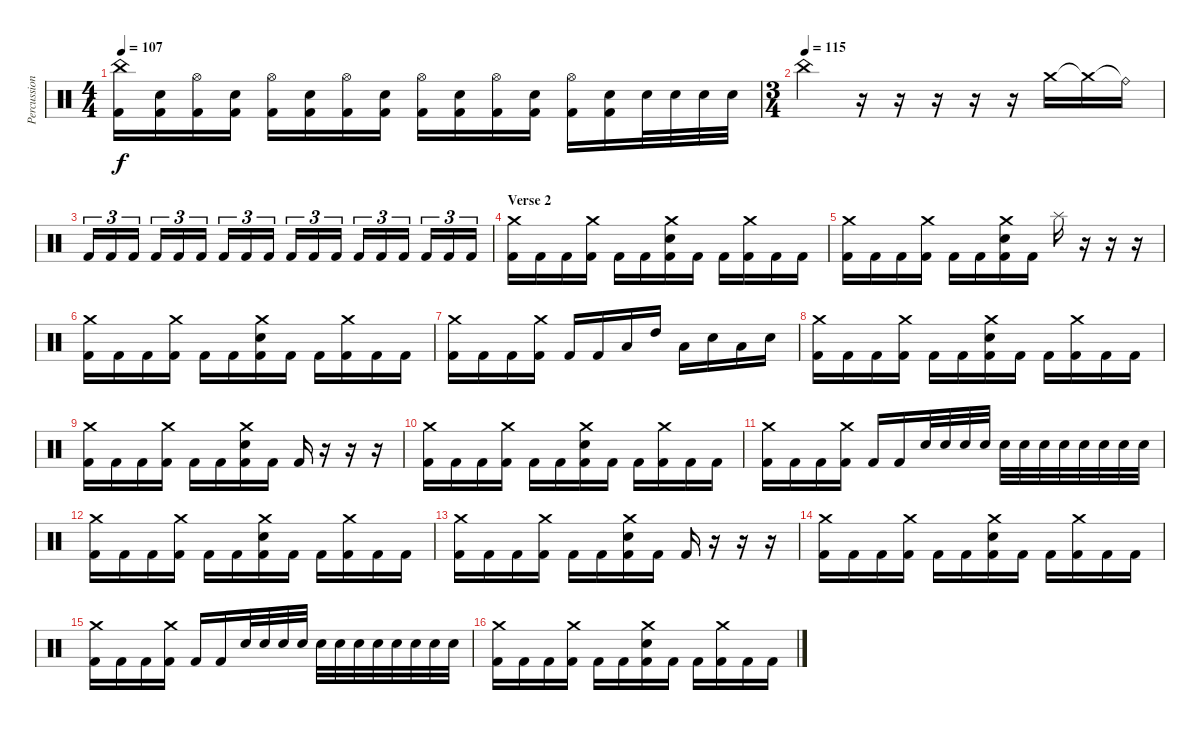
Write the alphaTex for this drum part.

\track ("Percussion" "Percussion") {instrument percussion}
\staff {score}
\articulation defaults
\ts (4 4)
\tempo 107
\clef neutral
\ks c
("Kick (hit) 2" "China (hit)").16{dy f} ("Kick (hit) 2" "Electric Snare (hit)").16 ("Kick (hit) 2" "Hi-Hat (open)").16 ("Kick (hit) 2" "Electric Snare (hit)").16 ("Kick (hit) 2" "Hi-Hat (open)").16 ("Kick (hit) 2" "Electric Snare (hit)").16 ("Kick (hit) 2" "Hi-Hat (open)").16 ("Kick (hit) 2" "Electric Snare (hit)").16 ("Kick (hit) 2" "Hi-Hat (open)").16 ("Kick (hit) 2" "Electric Snare (hit)").16 ("Kick (hit) 2" "Hi-Hat (open)").16 ("Kick (hit) 2" "Electric Snare (hit)").16 ("Kick (hit) 2" "Hi-Hat (open)").16 ("Kick (hit) 2" "Electric Snare (hit)").16 "Electric Snare (hit)".32 "Electric Snare (hit)".32 "Electric Snare (hit)".32 "Electric Snare (hit)".32 |
\ts (3 4)
\tempo (115)
"China (hit)".4 r.16 r.16 r.16 r.16 r.16 "Crash medium (hit)".16 "Crash medium (hit)"{t}.16 "Ride (bell)"{t}.16 |
"Kick (hit) 2".16{tu (3 2)} "Kick (hit) 2".16{tu (3 2)} "Kick (hit) 2".16{tu (3 2)} "Kick (hit) 2".16{tu (3 2)} "Kick (hit) 2".16{tu (3 2)} "Kick (hit) 2".16{tu (3 2)} "Kick (hit) 2".16{tu (3 2)} "Kick (hit) 2".16{tu (3 2)} "Kick (hit) 2".16{tu (3 2)} "Kick (hit) 2".16{tu (3 2)} "Kick (hit) 2".16{tu (3 2)} "Kick (hit) 2".16{tu (3 2)} "Kick (hit) 2".16{tu (3 2)} "Kick (hit) 2".16{tu (3 2)} "Kick (hit) 2".16{tu (3 2)} "Kick (hit) 2".16{tu (3 2)} "Kick (hit) 2".16{tu (3 2)} "Kick (hit) 2".16{tu (3 2)} |
\section ("" "Verse 2")
("Kick (hit) 2" "Crash medium (hit)").16 "Kick (hit) 2".16 "Kick (hit) 2".16 ("Kick (hit) 2" "Crash medium (hit)").16 "Kick (hit) 2".16 "Kick (hit) 2".16 ("Kick (hit) 2" "Electric Snare (hit)" "Crash medium (hit)").16 "Kick (hit) 2".16 "Kick (hit) 2".16 ("Kick (hit) 2" "Crash medium (hit)").16 "Kick (hit) 2".16 "Kick (hit) 2".16 |
("Kick (hit) 2" "Crash medium (hit)").16 "Kick (hit) 2".16 "Kick (hit) 2".16 ("Kick (hit) 2" "Crash medium (hit)").16 "Kick (hit) 2".16 "Kick (hit) 2".16 ("Kick (hit) 2" "Electric Snare (hit)" "Crash medium (hit)").16 "Kick (hit) 2".16 "Splash (hit)".16 r.16 r.16 r.16 |
("Kick (hit) 2" "Crash medium (hit)").16 "Kick (hit) 2".16 "Kick (hit) 2".16 ("Kick (hit) 2" "Crash medium (hit)").16 "Kick (hit) 2".16 "Kick (hit) 2".16 ("Kick (hit) 2" "Electric Snare (hit)" "Crash medium (hit)").16 "Kick (hit) 2".16 "Kick (hit) 2".16 ("Kick (hit) 2" "Crash medium (hit)").16 "Kick (hit) 2".16 "Kick (hit) 2".16 |
("Kick (hit) 2" "Crash medium (hit)").16 "Kick (hit) 2".16 "Kick (hit) 2".16 ("Kick (hit) 2" "Crash medium (hit)").16 "Kick (hit) 2".16 "Kick (hit) 2".16 "Low Tom (hit)".16 "High Tom (hit)".16 "Low Tom (hit)".16 "Electric Snare (hit)".16 "Low Tom (hit)".16 "Electric Snare (hit)".16 |
("Kick (hit) 2" "Crash medium (hit)").16 "Kick (hit) 2".16 "Kick (hit) 2".16 ("Kick (hit) 2" "Crash medium (hit)").16 "Kick (hit) 2".16 "Kick (hit) 2".16 ("Kick (hit) 2" "Electric Snare (hit)" "Crash medium (hit)").16 "Kick (hit) 2".16 "Kick (hit) 2".16 ("Kick (hit) 2" "Crash medium (hit)").16 "Kick (hit) 2".16 "Kick (hit) 2".16 |
("Kick (hit) 2" "Crash medium (hit)").16 "Kick (hit) 2".16 "Kick (hit) 2".16 ("Kick (hit) 2" "Crash medium (hit)").16 "Kick (hit) 2".16 "Kick (hit) 2".16 ("Kick (hit) 2" "Electric Snare (hit)" "Crash medium (hit)").16 "Kick (hit) 2".16 "Kick (hit) 2".16 r.16 r.16 r.16 |
("Kick (hit) 2" "Crash medium (hit)").16 "Kick (hit) 2".16 "Kick (hit) 2".16 ("Kick (hit) 2" "Crash medium (hit)").16 "Kick (hit) 2".16 "Kick (hit) 2".16 ("Kick (hit) 2" "Electric Snare (hit)" "Crash medium (hit)").16 "Kick (hit) 2".16 "Kick (hit) 2".16 ("Kick (hit) 2" "Crash medium (hit)").16 "Kick (hit) 2".16 "Kick (hit) 2".16 |
("Kick (hit) 2" "Crash medium (hit)").16 "Kick (hit) 2".16 "Kick (hit) 2".16 ("Kick (hit) 2" "Crash medium (hit)").16 "Kick (hit) 2".16 "Kick (hit) 2".16 "Electric Snare (hit)".32 "Electric Snare (hit)".32 "Electric Snare (hit)".32 "Electric Snare (hit)".32 "Electric Snare (hit)".32 "Electric Snare (hit)".32 "Electric Snare (hit)".32 "Electric Snare (hit)".32 "Electric Snare (hit)".32 "Electric Snare (hit)".32 "Electric Snare (hit)".32 "Electric Snare (hit)".32 |
("Kick (hit) 2" "Crash medium (hit)").16 "Kick (hit) 2".16 "Kick (hit) 2".16 ("Kick (hit) 2" "Crash medium (hit)").16 "Kick (hit) 2".16 "Kick (hit) 2".16 ("Kick (hit) 2" "Electric Snare (hit)" "Crash medium (hit)").16 "Kick (hit) 2".16 "Kick (hit) 2".16 ("Kick (hit) 2" "Crash medium (hit)").16 "Kick (hit) 2".16 "Kick (hit) 2".16 |
("Kick (hit) 2" "Crash medium (hit)").16 "Kick (hit) 2".16 "Kick (hit) 2".16 ("Kick (hit) 2" "Crash medium (hit)").16 "Kick (hit) 2".16 "Kick (hit) 2".16 ("Kick (hit) 2" "Electric Snare (hit)" "Crash medium (hit)").16 "Kick (hit) 2".16 "Kick (hit) 2".16 r.16 r.16 r.16 |
("Kick (hit) 2" "Crash medium (hit)").16 "Kick (hit) 2".16 "Kick (hit) 2".16 ("Kick (hit) 2" "Crash medium (hit)").16 "Kick (hit) 2".16 "Kick (hit) 2".16 ("Kick (hit) 2" "Electric Snare (hit)" "Crash medium (hit)").16 "Kick (hit) 2".16 "Kick (hit) 2".16 ("Kick (hit) 2" "Crash medium (hit)").16 "Kick (hit) 2".16 "Kick (hit) 2".16 |
("Kick (hit) 2" "Crash medium (hit)").16 "Kick (hit) 2".16 "Kick (hit) 2".16 ("Kick (hit) 2" "Crash medium (hit)").16 "Kick (hit) 2".16 "Kick (hit) 2".16 "Electric Snare (hit)".32 "Electric Snare (hit)".32 "Electric Snare (hit)".32 "Electric Snare (hit)".32 "Electric Snare (hit)".32 "Electric Snare (hit)".32 "Electric Snare (hit)".32 "Electric Snare (hit)".32 "Electric Snare (hit)".32 "Electric Snare (hit)".32 "Electric Snare (hit)".32 "Electric Snare (hit)".32 |
("Kick (hit) 2" "Crash medium (hit)").16 "Kick (hit) 2".16 "Kick (hit) 2".16 ("Kick (hit) 2" "Crash medium (hit)").16 "Kick (hit) 2".16 "Kick (hit) 2".16 ("Kick (hit) 2" "Electric Snare (hit)" "Crash medium (hit)").16 "Kick (hit) 2".16 "Kick (hit) 2".16 ("Kick (hit) 2" "Crash medium (hit)").16 "Kick (hit) 2".16 "Kick (hit) 2".16
